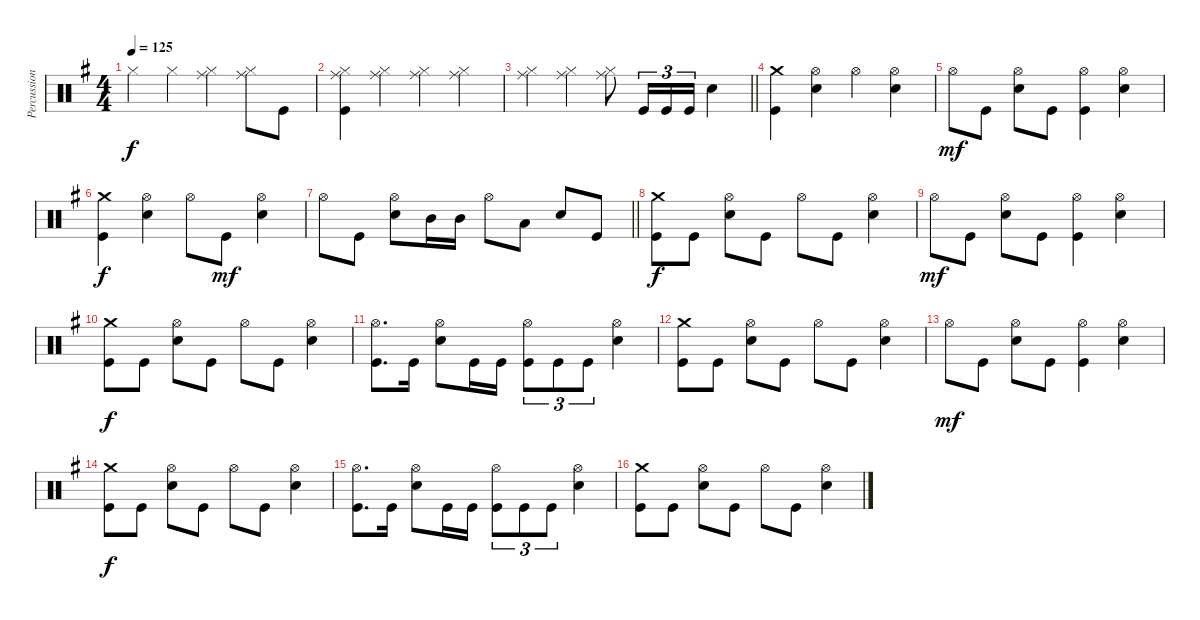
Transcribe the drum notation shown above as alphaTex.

\track ("Percussion" "Percussion") {instrument percussion}
\staff {score}
\articulation defaults
\ts (4 4)
\tempo 125
\clef neutral
\ks g "Hi-Hat (closed)".4{dy f} "Hi-Hat (closed)".4
("Ride (middle)" "Hi-Hat (closed)").4 ("Ride (middle)" "Hi-Hat (closed)").8 "Kick (hit)".8 |
("Ride (middle)" "Hi-Hat (closed)" "Kick (hit)").4 ("Ride (middle)" "Hi-Hat (closed)").4 ("Ride (middle)" "Hi-Hat (closed)").4 ("Ride (middle)" "Hi-Hat (closed)").4 |
\barLineRight lightlight
("Ride (middle)" "Hi-Hat (closed)").4 ("Ride (middle)" "Hi-Hat (closed)").4 ("Ride (middle)" "Hi-Hat (closed)").8 "Kick (hit)".16{tu (3 2)} "Kick (hit)".16{tu (3 2)} "Kick (hit)".16{tu (3 2)} "Snare (hit) 2".4 |
("Crash medium (hit)" "Kick (hit)").4 ("Hi-Hat (open)" "Snare (hit) 2").4 "Hi-Hat (open)".4 ("Hi-Hat (open)" "Snare (hit) 2").4 |
"Hi-Hat (open)".8{dy mf} "Kick (hit)".8 ("Hi-Hat (open)" "Snare (hit) 2").8 "Kick (hit)".8 ("Hi-Hat (open)" "Kick (hit)").4 ("Hi-Hat (open)" "Snare (hit) 2").4 |
("Crash medium (hit)" "Kick (hit)").4{dy f} ("Hi-Hat (open)" "Snare (hit) 2").4 "Hi-Hat (open)".8 "Kick (hit)".8{dy mf} ("Hi-Hat (open)" "Snare (hit) 2").4 |
\barLineRight lightlight "Hi-Hat (open)".8 "Kick (hit)".8
("Hi-Hat (open)" "Snare (hit) 2").8 "Mid Tom (hit)".16 "Mid Tom (hit)".16 "Hi-Hat (open)".8 "Low Tom (hit)".8 "Snare (hit) 2".8 "Kick (hit)".8 |
("Crash medium (hit)" "Kick (hit)").8{dy f} "Kick (hit)".8 ("Hi-Hat (open)" "Snare (hit) 2").8 "Kick (hit)".8 "Hi-Hat (open)".8 "Kick (hit)".8 ("Hi-Hat (open)" "Snare (hit) 2").4 |
"Hi-Hat (open)".8{dy mf} "Kick (hit)".8 ("Hi-Hat (open)" "Snare (hit) 2").8 "Kick (hit)".8 ("Hi-Hat (open)" "Kick (hit)").4 ("Hi-Hat (open)" "Snare (hit) 2").4 |
("Crash medium (hit)" "Kick (hit)").8{dy f} "Kick (hit)".8 ("Hi-Hat (open)" "Snare (hit) 2").8 "Kick (hit)".8 "Hi-Hat (open)".8 "Kick (hit)".8 ("Hi-Hat (open)" "Snare (hit) 2").4 |
("Hi-Hat (open)" "Kick (hit)").8{d} "Kick (hit)".16 ("Hi-Hat (open)" "Snare (hit) 2").8 "Kick (hit)".16 "Kick (hit)".16 ("Hi-Hat (open)" "Kick (hit)").8{tu (3 2)} "Kick (hit)".8{tu (3 2)} "Kick (hit)".8{tu (3 2)} ("Hi-Hat (open)" "Snare (hit) 2").4 |
("Crash medium (hit)" "Kick (hit)").8 "Kick (hit)".8 ("Hi-Hat (open)" "Snare (hit) 2").8 "Kick (hit)".8 "Hi-Hat (open)".8 "Kick (hit)".8 ("Hi-Hat (open)" "Snare (hit) 2").4 |
"Hi-Hat (open)".8{dy mf} "Kick (hit)".8 ("Hi-Hat (open)" "Snare (hit) 2").8 "Kick (hit)".8 ("Hi-Hat (open)" "Kick (hit)").4 ("Hi-Hat (open)" "Snare (hit) 2").4 |
("Crash medium (hit)" "Kick (hit)").8{dy f} "Kick (hit)".8 ("Hi-Hat (open)" "Snare (hit) 2").8 "Kick (hit)".8 "Hi-Hat (open)".8 "Kick (hit)".8 ("Hi-Hat (open)" "Snare (hit) 2").4 |
("Hi-Hat (open)" "Kick (hit)").8{d} "Kick (hit)".16 ("Hi-Hat (open)" "Snare (hit) 2").8 "Kick (hit)".16 "Kick (hit)".16 ("Hi-Hat (open)" "Kick (hit)").8{tu (3 2)} "Kick (hit)".8{tu (3 2)} "Kick (hit)".8{tu (3 2)} ("Hi-Hat (open)" "Snare (hit) 2").4 |
("Crash medium (hit)" "Kick (hit)").8 "Kick (hit)".8 ("Hi-Hat (open)" "Snare (hit) 2").8 "Kick (hit)".8 "Hi-Hat (open)".8 "Kick (hit)".8 ("Hi-Hat (open)" "Snare (hit) 2").4
